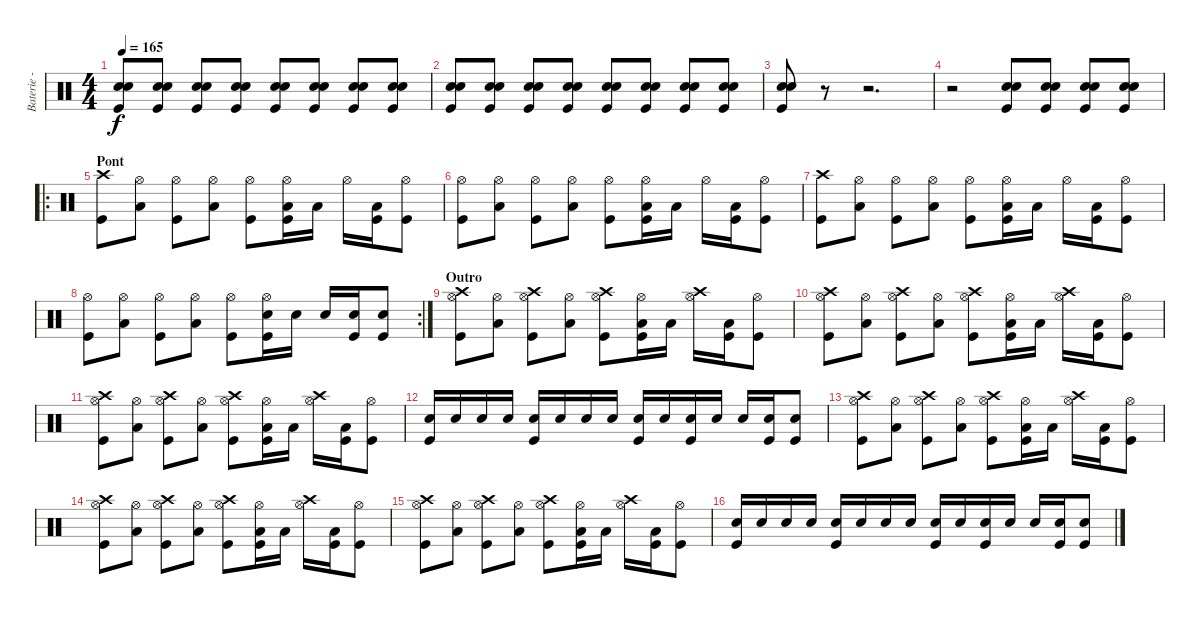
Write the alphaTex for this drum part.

\track ("Baterie - Alex" "Baterie - ") {instrument percussion}
\staff {score}
\articulation defaults
\ts (4 4)
\tempo 165
\clef neutral
\ks c
("Snare (hit) 2" "Electric Snare (hit)" "Kick (hit)").8{dy f} ("Snare (hit) 2" "Electric Snare (hit)" "Kick (hit)").8 ("Snare (hit) 2" "Electric Snare (hit)" "Kick (hit)").8 ("Snare (hit) 2" "Electric Snare (hit)" "Kick (hit)").8 ("Snare (hit) 2" "Electric Snare (hit)" "Kick (hit)").8 ("Snare (hit) 2" "Electric Snare (hit)" "Kick (hit)").8 ("Snare (hit) 2" "Electric Snare (hit)" "Kick (hit)").8 ("Snare (hit) 2" "Electric Snare (hit)" "Kick (hit)").8 |
("Snare (hit) 2" "Electric Snare (hit)" "Kick (hit)").8 ("Snare (hit) 2" "Electric Snare (hit)" "Kick (hit)").8 ("Snare (hit) 2" "Electric Snare (hit)" "Kick (hit)").8 ("Snare (hit) 2" "Electric Snare (hit)" "Kick (hit)").8 ("Snare (hit) 2" "Electric Snare (hit)" "Kick (hit)").8 ("Snare (hit) 2" "Electric Snare (hit)" "Kick (hit)").8 ("Snare (hit) 2" "Electric Snare (hit)" "Kick (hit)").8 ("Snare (hit) 2" "Electric Snare (hit)" "Kick (hit)").8 |
("Snare (hit) 2" "Electric Snare (hit)" "Kick (hit)").8 r.8 r.2{d} |
r.2 ("Snare (hit) 2" "Electric Snare (hit)" "Kick (hit)").8 ("Snare (hit) 2" "Electric Snare (hit)" "Kick (hit)").8 ("Snare (hit) 2" "Electric Snare (hit)" "Kick (hit)").8 ("Snare (hit) 2" "Electric Snare (hit)" "Kick (hit)").8 |
\ro
\section ("" "Pont")
("Crash high (hit)" "Kick (hit)").8 ("Hi-Hat (open)" "Low Tom (hit)").8 ("Hi-Hat (open)" "Kick (hit)").8 ("Hi-Hat (open)" "Low Tom (hit)").8 ("Hi-Hat (open)" "Kick (hit)").8 ("Hi-Hat (open)" "Low Tom (hit)" "Kick (hit)").16 "Low Tom (hit)".16 "Hi-Hat (open)".16 ("Low Tom (hit)" "Kick (hit)").16 ("Hi-Hat (open)" "Kick (hit)").8 |
("Hi-Hat (open)" "Kick (hit)").8 ("Hi-Hat (open)" "Low Tom (hit)").8 ("Hi-Hat (open)" "Kick (hit)").8 ("Hi-Hat (open)" "Low Tom (hit)").8 ("Hi-Hat (open)" "Kick (hit)").8 ("Hi-Hat (open)" "Low Tom (hit)" "Kick (hit)").16 "Low Tom (hit)".16 "Hi-Hat (open)".16 ("Low Tom (hit)" "Kick (hit)").16 ("Hi-Hat (open)" "Kick (hit)").8 |
("Crash high (hit)" "Kick (hit)").8 ("Hi-Hat (open)" "Low Tom (hit)").8 ("Hi-Hat (open)" "Kick (hit)").8 ("Hi-Hat (open)" "Low Tom (hit)").8 ("Hi-Hat (open)" "Kick (hit)").8 ("Hi-Hat (open)" "Low Tom (hit)" "Kick (hit)").16 "Low Tom (hit)".16 "Hi-Hat (open)".16 ("Low Tom (hit)" "Kick (hit)").16 ("Hi-Hat (open)" "Kick (hit)").8 |
\rc 2
("Hi-Hat (open)" "Kick (hit)").8 ("Hi-Hat (open)" "Low Tom (hit)").8 ("Hi-Hat (open)" "Kick (hit)").8 ("Hi-Hat (open)" "Low Tom (hit)").8 ("Hi-Hat (open)" "Kick (hit)").8 ("Hi-Hat (open)" "Electric Snare (hit)" "Kick (hit)").16 "Electric Snare (hit)".16 "Electric Snare (hit)".16 ("Electric Snare (hit)" "Kick (hit)").16 ("Electric Snare (hit)" "Kick (hit)").8 |
\section ("" "Outro")
("Hi-Hat (open)" "Crash high (hit)" "Kick (hit)").8 ("Hi-Hat (open)" "Low Tom (hit)").8 ("Hi-Hat (open)" "Crash high (hit)" "Kick (hit)").8 ("Hi-Hat (open)" "Low Tom (hit)").8 ("Hi-Hat (open)" "Crash high (hit)" "Kick (hit)").8 ("Hi-Hat (open)" "Low Tom (hit)" "Kick (hit)").16 "Low Tom (hit)".16 ("Hi-Hat (open)" "Crash high (hit)").16 ("Low Tom (hit)" "Kick (hit)").16 ("Hi-Hat (open)" "Kick (hit)").8 |
("Hi-Hat (open)" "Crash high (hit)" "Kick (hit)").8 ("Hi-Hat (open)" "Low Tom (hit)").8 ("Hi-Hat (open)" "Crash high (hit)" "Kick (hit)").8 ("Hi-Hat (open)" "Low Tom (hit)").8 ("Hi-Hat (open)" "Crash high (hit)" "Kick (hit)").8 ("Hi-Hat (open)" "Low Tom (hit)" "Kick (hit)").16 "Low Tom (hit)".16 ("Hi-Hat (open)" "Crash high (hit)").16 ("Low Tom (hit)" "Kick (hit)").16 ("Hi-Hat (open)" "Kick (hit)").8 |
("Hi-Hat (open)" "Crash high (hit)" "Kick (hit)").8 ("Hi-Hat (open)" "Low Tom (hit)").8 ("Hi-Hat (open)" "Crash high (hit)" "Kick (hit)").8 ("Hi-Hat (open)" "Low Tom (hit)").8 ("Hi-Hat (open)" "Crash high (hit)" "Kick (hit)").8 ("Hi-Hat (open)" "Low Tom (hit)" "Kick (hit)").16 "Low Tom (hit)".16 ("Hi-Hat (open)" "Crash high (hit)").16 ("Low Tom (hit)" "Kick (hit)").16 ("Hi-Hat (open)" "Kick (hit)").8 |
("Electric Snare (hit)" "Kick (hit)").16 "Electric Snare (hit)".16 "Electric Snare (hit)".16 "Electric Snare (hit)".16 ("Electric Snare (hit)" "Kick (hit)").16 "Electric Snare (hit)".16 "Electric Snare (hit)".16 "Electric Snare (hit)".16 ("Electric Snare (hit)" "Kick (hit)").16 "Electric Snare (hit)".16 ("Electric Snare (hit)" "Kick (hit)").16 "Electric Snare (hit)".16 "Electric Snare (hit)".16 ("Electric Snare (hit)" "Kick (hit)").16 ("Electric Snare (hit)" "Kick (hit)").8 |
("Hi-Hat (open)" "Crash high (hit)" "Kick (hit)").8 ("Hi-Hat (open)" "Low Tom (hit)").8 ("Hi-Hat (open)" "Crash high (hit)" "Kick (hit)").8 ("Hi-Hat (open)" "Low Tom (hit)").8 ("Hi-Hat (open)" "Crash high (hit)" "Kick (hit)").8 ("Hi-Hat (open)" "Low Tom (hit)" "Kick (hit)").16 "Low Tom (hit)".16 ("Hi-Hat (open)" "Crash high (hit)").16 ("Low Tom (hit)" "Kick (hit)").16 ("Hi-Hat (open)" "Kick (hit)").8 |
("Hi-Hat (open)" "Crash high (hit)" "Kick (hit)").8 ("Hi-Hat (open)" "Low Tom (hit)").8 ("Hi-Hat (open)" "Crash high (hit)" "Kick (hit)").8 ("Hi-Hat (open)" "Low Tom (hit)").8 ("Hi-Hat (open)" "Crash high (hit)" "Kick (hit)").8 ("Hi-Hat (open)" "Low Tom (hit)" "Kick (hit)").16 "Low Tom (hit)".16 ("Hi-Hat (open)" "Crash high (hit)").16 ("Low Tom (hit)" "Kick (hit)").16 ("Hi-Hat (open)" "Kick (hit)").8 |
("Hi-Hat (open)" "Crash high (hit)" "Kick (hit)").8 ("Hi-Hat (open)" "Low Tom (hit)").8 ("Hi-Hat (open)" "Crash high (hit)" "Kick (hit)").8 ("Hi-Hat (open)" "Low Tom (hit)").8 ("Hi-Hat (open)" "Crash high (hit)" "Kick (hit)").8 ("Hi-Hat (open)" "Low Tom (hit)" "Kick (hit)").16 "Low Tom (hit)".16 ("Hi-Hat (open)" "Crash high (hit)").16 ("Low Tom (hit)" "Kick (hit)").16 ("Hi-Hat (open)" "Kick (hit)").8 |
("Electric Snare (hit)" "Kick (hit)").16 "Electric Snare (hit)".16 "Electric Snare (hit)".16 "Electric Snare (hit)".16 ("Electric Snare (hit)" "Kick (hit)").16 "Electric Snare (hit)".16 "Electric Snare (hit)".16 "Electric Snare (hit)".16 ("Electric Snare (hit)" "Kick (hit)").16 "Electric Snare (hit)".16 ("Electric Snare (hit)" "Kick (hit)").16 "Electric Snare (hit)".16 "Electric Snare (hit)".16 ("Electric Snare (hit)" "Kick (hit)").16 ("Electric Snare (hit)" "Kick (hit)").8
